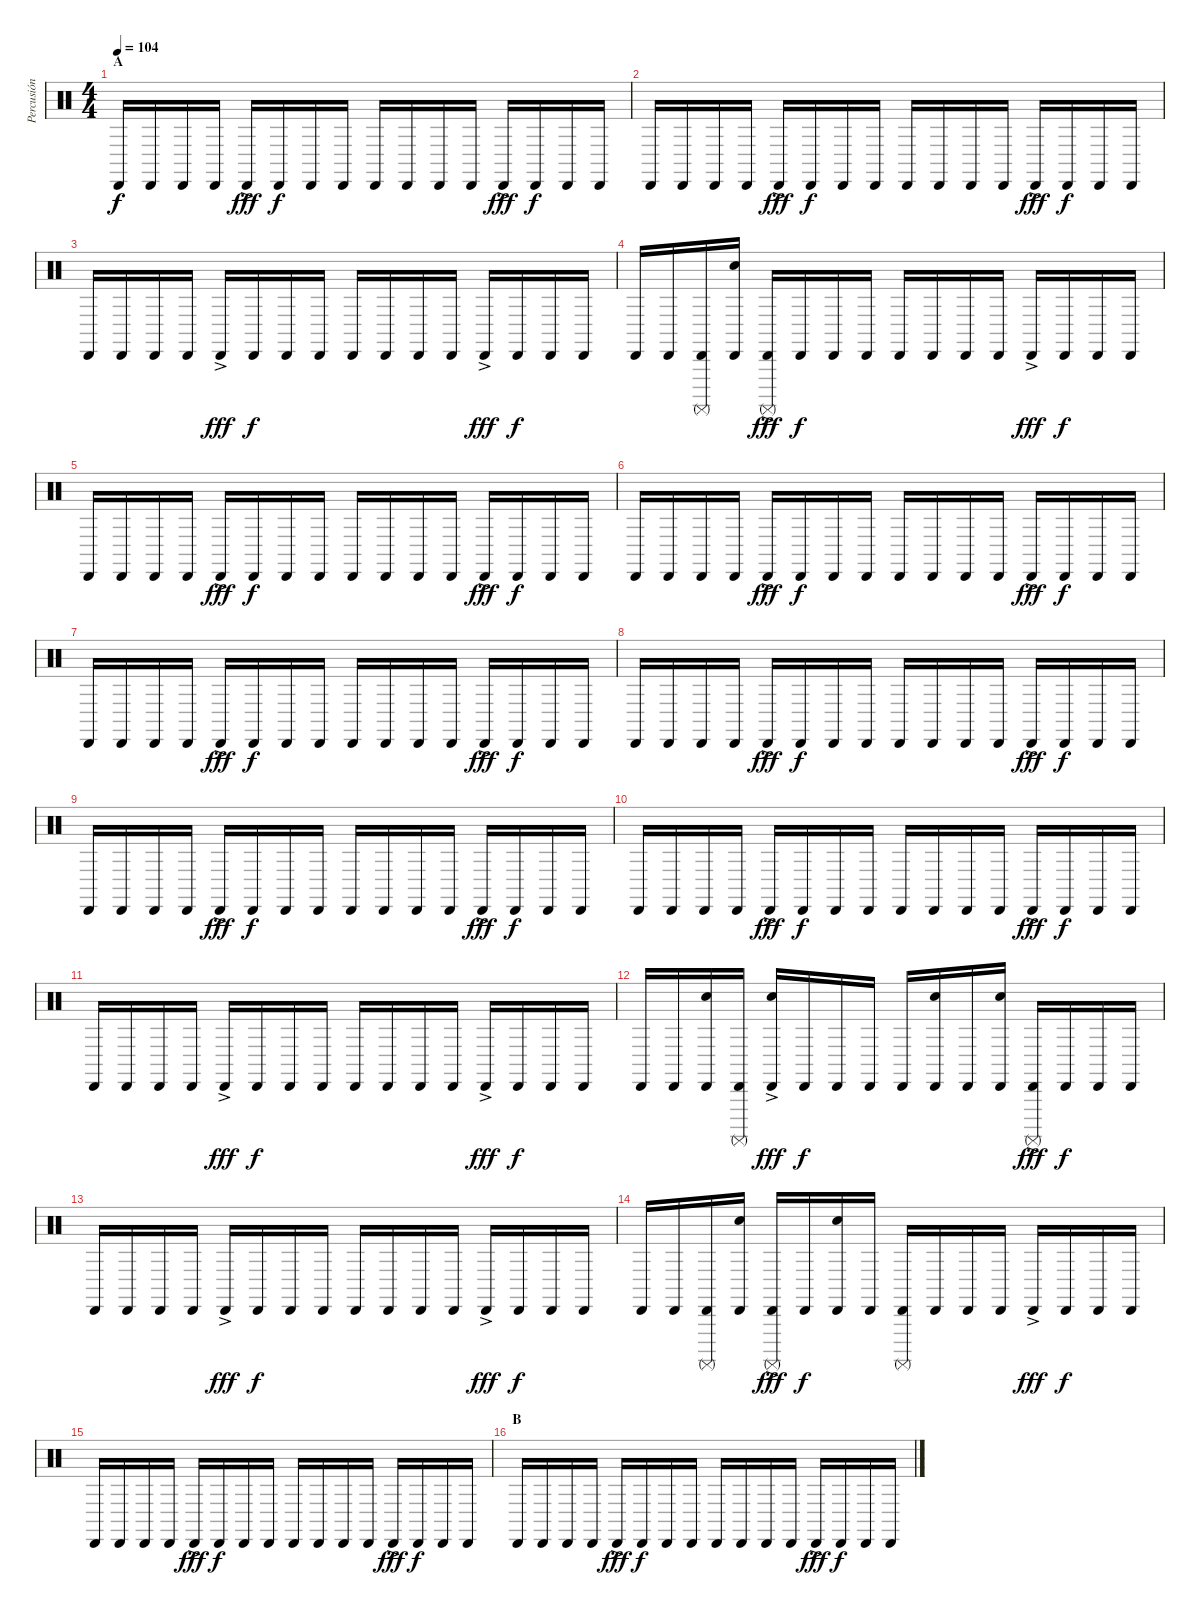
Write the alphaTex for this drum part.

\track ("Percusión" "Percusión") {instrument percussion}
\staff {score}
\articulation defaults
\ts (4 4)
\section ("" "A")
\tempo 104
\clef neutral
\ks c "Cabasa (hit)".16{dy f} "Cabasa (hit)".16 "Cabasa (hit)".16 "Cabasa (hit)".16 "Cabasa (hit)"{ac}.16{dy fff} "Cabasa (hit)".16{dy f} "Cabasa (hit)".16 "Cabasa (hit)".16 "Cabasa (hit)".16 "Cabasa (hit)".16 "Cabasa (hit)".16 "Cabasa (hit)".16 "Cabasa (hit)"{ac}.16{dy fff} "Cabasa (hit)".16{dy f} "Cabasa (hit)".16 "Cabasa (hit)".16
|
"Cabasa (hit)".16 "Cabasa (hit)".16 "Cabasa (hit)".16 "Cabasa (hit)".16 "Cabasa (hit)"{ac}.16{dy fff} "Cabasa (hit)".16{dy f} "Cabasa (hit)".16 "Cabasa (hit)".16 "Cabasa (hit)".16 "Cabasa (hit)".16 "Cabasa (hit)".16 "Cabasa (hit)".16 "Cabasa (hit)"{ac}.16{dy fff} "Cabasa (hit)".16{dy f} "Cabasa (hit)".16 "Cabasa (hit)".16 |
"Cabasa (hit)".16 "Cabasa (hit)".16 "Cabasa (hit)".16 "Cabasa (hit)".16 "Cabasa (hit)"{ac}.16{dy fff} "Cabasa (hit)".16{dy f} "Cabasa (hit)".16 "Cabasa (hit)".16 "Cabasa (hit)".16 "Cabasa (hit)".16 "Cabasa (hit)".16 "Cabasa (hit)".16 "Cabasa (hit)"{ac}.16{dy fff} "Cabasa (hit)".16{dy f} "Cabasa (hit)".16 "Cabasa (hit)".16 |
"Cabasa (hit)".16 "Cabasa (hit)".16 ("Cabasa (hit)" "Surdo (mute)").16 ("Cabasa (hit)" "Snare (hit)").16 ("Cabasa (hit)"{ac} "Surdo (mute)").16{dy fff} "Cabasa (hit)".16{dy f} "Cabasa (hit)".16 "Cabasa (hit)".16 "Cabasa (hit)".16 "Cabasa (hit)".16 "Cabasa (hit)".16 "Cabasa (hit)".16 "Cabasa (hit)"{ac}.16{dy fff} "Cabasa (hit)".16{dy f} "Cabasa (hit)".16 "Cabasa (hit)".16 |
"Cabasa (hit)".16 "Cabasa (hit)".16 "Cabasa (hit)".16 "Cabasa (hit)".16 "Cabasa (hit)"{ac}.16{dy fff} "Cabasa (hit)".16{dy f} "Cabasa (hit)".16 "Cabasa (hit)".16 "Cabasa (hit)".16 "Cabasa (hit)".16 "Cabasa (hit)".16 "Cabasa (hit)".16 "Cabasa (hit)"{ac}.16{dy fff} "Cabasa (hit)".16{dy f} "Cabasa (hit)".16 "Cabasa (hit)".16 |
"Cabasa (hit)".16 "Cabasa (hit)".16 "Cabasa (hit)".16 "Cabasa (hit)".16 "Cabasa (hit)"{ac}.16{dy fff} "Cabasa (hit)".16{dy f} "Cabasa (hit)".16 "Cabasa (hit)".16 "Cabasa (hit)".16 "Cabasa (hit)".16 "Cabasa (hit)".16 "Cabasa (hit)".16 "Cabasa (hit)"{ac}.16{dy fff} "Cabasa (hit)".16{dy f} "Cabasa (hit)".16 "Cabasa (hit)".16 |
"Cabasa (hit)".16 "Cabasa (hit)".16 "Cabasa (hit)".16 "Cabasa (hit)".16 "Cabasa (hit)"{ac}.16{dy fff} "Cabasa (hit)".16{dy f} "Cabasa (hit)".16 "Cabasa (hit)".16 "Cabasa (hit)".16 "Cabasa (hit)".16 "Cabasa (hit)".16 "Cabasa (hit)".16 "Cabasa (hit)"{ac}.16{dy fff} "Cabasa (hit)".16{dy f} "Cabasa (hit)".16 "Cabasa (hit)".16 |
"Cabasa (hit)".16 "Cabasa (hit)".16 "Cabasa (hit)".16 "Cabasa (hit)".16 "Cabasa (hit)"{ac}.16{dy fff} "Cabasa (hit)".16{dy f} "Cabasa (hit)".16 "Cabasa (hit)".16 "Cabasa (hit)".16 "Cabasa (hit)".16 "Cabasa (hit)".16 "Cabasa (hit)".16 "Cabasa (hit)"{ac}.16{dy fff} "Cabasa (hit)".16{dy f} "Cabasa (hit)".16 "Cabasa (hit)".16 |
"Cabasa (hit)".16 "Cabasa (hit)".16 "Cabasa (hit)".16 "Cabasa (hit)".16 "Cabasa (hit)"{ac}.16{dy fff} "Cabasa (hit)".16{dy f} "Cabasa (hit)".16 "Cabasa (hit)".16 "Cabasa (hit)".16 "Cabasa (hit)".16 "Cabasa (hit)".16 "Cabasa (hit)".16 "Cabasa (hit)"{ac}.16{dy fff} "Cabasa (hit)".16{dy f} "Cabasa (hit)".16 "Cabasa (hit)".16 |
"Cabasa (hit)".16 "Cabasa (hit)".16 "Cabasa (hit)".16 "Cabasa (hit)".16 "Cabasa (hit)"{ac}.16{dy fff} "Cabasa (hit)".16{dy f} "Cabasa (hit)".16 "Cabasa (hit)".16 "Cabasa (hit)".16 "Cabasa (hit)".16 "Cabasa (hit)".16 "Cabasa (hit)".16 "Cabasa (hit)"{ac}.16{dy fff} "Cabasa (hit)".16{dy f} "Cabasa (hit)".16 "Cabasa (hit)".16 |
"Cabasa (hit)".16 "Cabasa (hit)".16 "Cabasa (hit)".16 "Cabasa (hit)".16 "Cabasa (hit)"{ac}.16{dy fff} "Cabasa (hit)".16{dy f} "Cabasa (hit)".16 "Cabasa (hit)".16 "Cabasa (hit)".16 "Cabasa (hit)".16 "Cabasa (hit)".16 "Cabasa (hit)".16 "Cabasa (hit)"{ac}.16{dy fff} "Cabasa (hit)".16{dy f} "Cabasa (hit)".16 "Cabasa (hit)".16 |
"Cabasa (hit)".16 "Cabasa (hit)".16 ("Cabasa (hit)" "Snare (hit)").16 ("Cabasa (hit)" "Surdo (mute)").16 ("Cabasa (hit)"{ac} "Snare (hit)").16{dy fff} "Cabasa (hit)".16{dy f} "Cabasa (hit)".16 "Cabasa (hit)".16 "Cabasa (hit)".16 ("Cabasa (hit)" "Snare (hit)").16 "Cabasa (hit)".16 ("Cabasa (hit)" "Snare (hit)").16 ("Cabasa (hit)"{ac} "Surdo (mute)").16{dy fff} "Cabasa (hit)".16{dy f} "Cabasa (hit)".16 "Cabasa (hit)".16 |
"Cabasa (hit)".16 "Cabasa (hit)".16 "Cabasa (hit)".16 "Cabasa (hit)".16 "Cabasa (hit)"{ac}.16{dy fff} "Cabasa (hit)".16{dy f} "Cabasa (hit)".16 "Cabasa (hit)".16 "Cabasa (hit)".16 "Cabasa (hit)".16 "Cabasa (hit)".16 "Cabasa (hit)".16 "Cabasa (hit)"{ac}.16{dy fff} "Cabasa (hit)".16{dy f} "Cabasa (hit)".16 "Cabasa (hit)".16 |
"Cabasa (hit)".16 "Cabasa (hit)".16 ("Cabasa (hit)" "Surdo (mute)").16 ("Cabasa (hit)" "Snare (hit)").16 ("Cabasa (hit)"{ac} "Surdo (mute)").16{dy fff} "Cabasa (hit)".16{dy f} ("Cabasa (hit)" "Snare (hit)").16 "Cabasa (hit)".16 ("Cabasa (hit)" "Surdo (mute)").16 "Cabasa (hit)".16 "Cabasa (hit)".16 "Cabasa (hit)".16 "Cabasa (hit)"{ac}.16{dy fff} "Cabasa (hit)".16{dy f} "Cabasa (hit)".16 "Cabasa (hit)".16 |
"Cabasa (hit)".16 "Cabasa (hit)".16 "Cabasa (hit)".16 "Cabasa (hit)".16 "Cabasa (hit)"{ac}.16{dy fff} "Cabasa (hit)".16{dy f} "Cabasa (hit)".16 "Cabasa (hit)".16 "Cabasa (hit)".16 "Cabasa (hit)".16 "Cabasa (hit)".16 "Cabasa (hit)".16 "Cabasa (hit)"{ac}.16{dy fff} "Cabasa (hit)".16{dy f} "Cabasa (hit)".16 "Cabasa (hit)".16 |
\section ("" "B")
"Cabasa (hit)".16 "Cabasa (hit)".16 "Cabasa (hit)".16 "Cabasa (hit)".16 "Cabasa (hit)"{ac}.16{dy fff} "Cabasa (hit)".16{dy f} "Cabasa (hit)".16 "Cabasa (hit)".16 "Cabasa (hit)".16 "Cabasa (hit)".16 "Cabasa (hit)".16 "Cabasa (hit)".16 "Cabasa (hit)"{ac}.16{dy fff} "Cabasa (hit)".16{dy f} "Cabasa (hit)".16 "Cabasa (hit)".16
